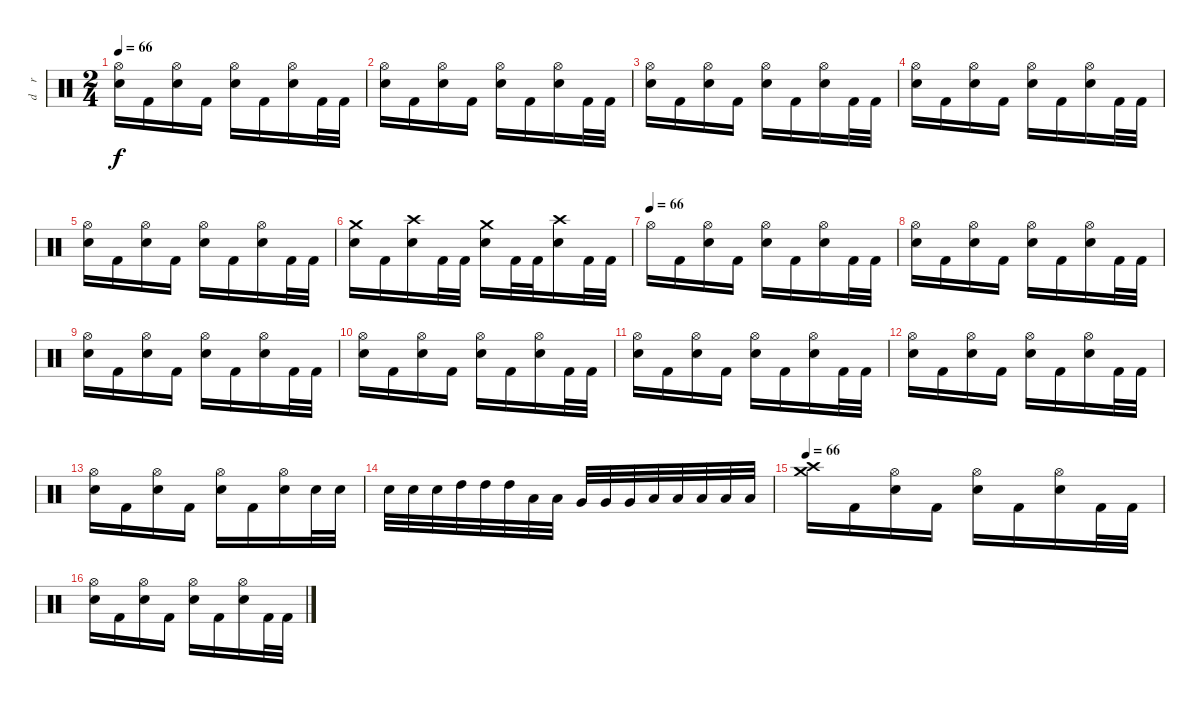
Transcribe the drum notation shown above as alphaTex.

\track ("d    r     u    m    s" "d    r    ") {instrument percussion}
\staff {score}
\articulation defaults
\ts (2 4)
\tempo 66
\clef neutral
\ks c
("Hi-Hat (open)" "Snare (hit) 2").16{dy f} "Kick (hit) 2".16 ("Hi-Hat (open)" "Snare (hit) 2").16 "Kick (hit) 2".16 ("Hi-Hat (open)" "Snare (hit) 2").16 "Kick (hit) 2".16 ("Hi-Hat (open)" "Snare (hit) 2").16 "Kick (hit) 2".32 "Kick (hit) 2".32 |
("Hi-Hat (open)" "Snare (hit) 2").16 "Kick (hit) 2".16 ("Hi-Hat (open)" "Snare (hit) 2").16 "Kick (hit) 2".16 ("Hi-Hat (open)" "Snare (hit) 2").16 "Kick (hit) 2".16 ("Hi-Hat (open)" "Snare (hit) 2").16 "Kick (hit) 2".32 "Kick (hit) 2".32 |
("Hi-Hat (open)" "Snare (hit) 2").16 "Kick (hit) 2".16 ("Hi-Hat (open)" "Snare (hit) 2").16 "Kick (hit) 2".16 ("Hi-Hat (open)" "Snare (hit) 2").16 "Kick (hit) 2".16 ("Hi-Hat (open)" "Snare (hit) 2").16 "Kick (hit) 2".32 "Kick (hit) 2".32 |
("Hi-Hat (open)" "Snare (hit) 2").16 "Kick (hit) 2".16 ("Hi-Hat (open)" "Snare (hit) 2").16 "Kick (hit) 2".16 ("Hi-Hat (open)" "Snare (hit) 2").16 "Kick (hit) 2".16 ("Hi-Hat (open)" "Snare (hit) 2").16 "Kick (hit) 2".32 "Kick (hit) 2".32 |
("Hi-Hat (open)" "Snare (hit) 2").16 "Kick (hit) 2".16 ("Hi-Hat (open)" "Snare (hit) 2").16 "Kick (hit) 2".16 ("Hi-Hat (open)" "Snare (hit) 2").16 "Kick (hit) 2".16 ("Hi-Hat (open)" "Snare (hit) 2").16 "Kick (hit) 2".32 "Kick (hit) 2".32 |
("Crash medium (hit)" "Snare (hit) 2").16 "Kick (hit) 2".16 ("Crash high (hit)" "Snare (hit) 2").16 "Kick (hit) 2".32 "Kick (hit) 2".32 ("Crash medium (hit)" "Snare (hit) 2").16 "Kick (hit) 2".32 "Kick (hit) 2".32 ("Crash high (hit)" "Snare (hit) 2").16 "Kick (hit) 2".32 "Kick (hit) 2".32 |
\tempo (66)
"Hi-Hat (open)".16 "Kick (hit) 2".16 ("Hi-Hat (open)" "Snare (hit) 2").16 "Kick (hit) 2".16 ("Hi-Hat (open)" "Snare (hit) 2").16 "Kick (hit) 2".16 ("Hi-Hat (open)" "Snare (hit) 2").16 "Kick (hit) 2".32 "Kick (hit) 2".32 |
("Hi-Hat (open)" "Snare (hit) 2").16 "Kick (hit) 2".16 ("Hi-Hat (open)" "Snare (hit) 2").16 "Kick (hit) 2".16 ("Hi-Hat (open)" "Snare (hit) 2").16 "Kick (hit) 2".16 ("Hi-Hat (open)" "Snare (hit) 2").16 "Kick (hit) 2".32 "Kick (hit) 2".32 |
("Hi-Hat (open)" "Snare (hit) 2").16 "Kick (hit) 2".16 ("Hi-Hat (open)" "Snare (hit) 2").16 "Kick (hit) 2".16 ("Hi-Hat (open)" "Snare (hit) 2").16 "Kick (hit) 2".16 ("Hi-Hat (open)" "Snare (hit) 2").16 "Kick (hit) 2".32 "Kick (hit) 2".32 |
("Hi-Hat (open)" "Snare (hit) 2").16 "Kick (hit) 2".16 ("Hi-Hat (open)" "Snare (hit) 2").16 "Kick (hit) 2".16 ("Hi-Hat (open)" "Snare (hit) 2").16 "Kick (hit) 2".16 ("Hi-Hat (open)" "Snare (hit) 2").16 "Kick (hit) 2".32 "Kick (hit) 2".32 |
("Hi-Hat (open)" "Snare (hit) 2").16 "Kick (hit) 2".16 ("Hi-Hat (open)" "Snare (hit) 2").16 "Kick (hit) 2".16 ("Hi-Hat (open)" "Snare (hit) 2").16 "Kick (hit) 2".16 ("Hi-Hat (open)" "Snare (hit) 2").16 "Kick (hit) 2".32 "Kick (hit) 2".32 |
("Hi-Hat (open)" "Snare (hit) 2").16 "Kick (hit) 2".16 ("Hi-Hat (open)" "Snare (hit) 2").16 "Kick (hit) 2".16 ("Hi-Hat (open)" "Snare (hit) 2").16 "Kick (hit) 2".16 ("Hi-Hat (open)" "Snare (hit) 2").16 "Kick (hit) 2".32 "Kick (hit) 2".32 |
("Hi-Hat (open)" "Snare (hit) 2").16 "Kick (hit) 2".16 ("Hi-Hat (open)" "Snare (hit) 2").16 "Kick (hit) 2".16 ("Hi-Hat (open)" "Snare (hit) 2").16 "Kick (hit) 2".16 ("Hi-Hat (open)" "Snare (hit) 2").16 "Snare (hit) 2".32 "Snare (hit) 2".32 |
"Snare (hit) 2".32 "Snare (hit) 2".32 "Snare (hit) 2".32 "High Tom (hit)".32 "High Tom (hit)".32 "High Tom (hit)".32 "Low Tom (hit)".32 "Low Tom (hit)".32 "Very Low Tom (hit)".32 "Very Low Tom (hit)".32 "Very Low Tom (hit)".32 "Low Floor Tom (hit)".32 "Low Floor Tom (hit)".32 "Low Floor Tom (hit)".32 "Low Floor Tom (hit)".32 "Low Floor Tom (hit)".32 |
\tempo 66
("Crash high (hit)" "Crash medium (hit)").16 "Kick (hit) 2".16 ("Hi-Hat (open)" "Snare (hit) 2").16 "Kick (hit) 2".16 ("Hi-Hat (open)" "Snare (hit) 2").16 "Kick (hit) 2".16 ("Hi-Hat (open)" "Snare (hit) 2").16 "Kick (hit) 2".32 "Kick (hit) 2".32 |
("Hi-Hat (open)" "Snare (hit) 2").16 "Kick (hit) 2".16 ("Hi-Hat (open)" "Snare (hit) 2").16 "Kick (hit) 2".16 ("Hi-Hat (open)" "Snare (hit) 2").16 "Kick (hit) 2".16 ("Hi-Hat (open)" "Snare (hit) 2").16 "Kick (hit) 2".32 "Kick (hit) 2".32
